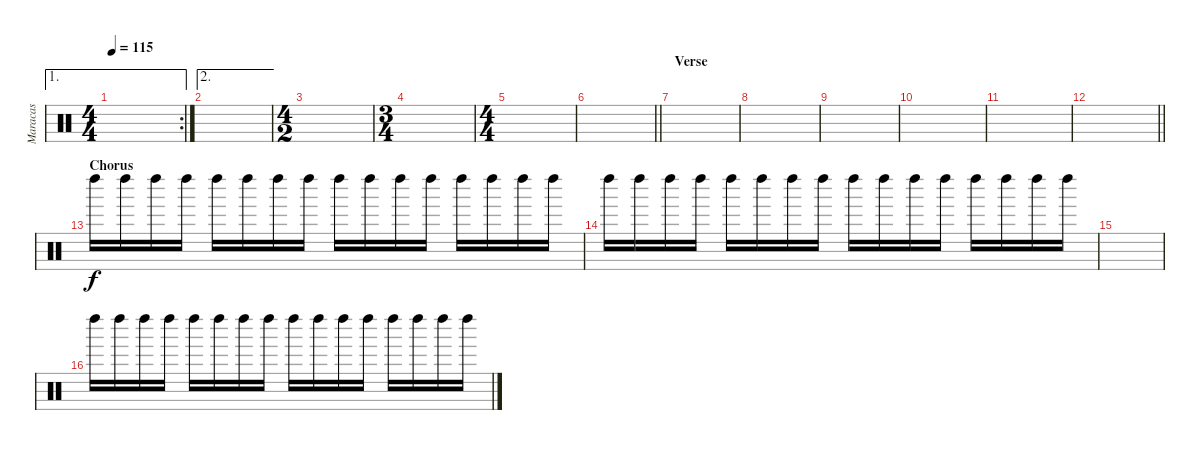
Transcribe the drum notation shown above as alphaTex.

\track ("Maracas" "Maracas") {instrument percussion}
\staff {score}
\articulation defaults
\ae 1
\rc 2
\ts (4 4)
\tempo 115
\clef neutral
\ks c
|
\ae 2
|
\ts (4 2)
|
\ts (3 4)
|
\ts (4 4)
|
\barLineRight lightlight
|
\section ("" "Verse")
|
|
|
|
|
\barLineRight lightlight
|
\section ("" "Chorus")
"Left Maraca (hit)".16 "Left Maraca (hit)".16 "Left Maraca (hit)".16 "Left Maraca (hit)".16 "Left Maraca (hit)".16 "Left Maraca (hit)".16 "Left Maraca (hit)".16 "Left Maraca (hit)".16 "Left Maraca (hit)".16 "Left Maraca (hit)".16 "Left Maraca (hit)".16 "Left Maraca (hit)".16 "Left Maraca (hit)".16 "Left Maraca (hit)".16 "Left Maraca (hit)".16 "Left Maraca (hit)".16 |
"Left Maraca (hit)".16 "Left Maraca (hit)".16 "Left Maraca (hit)".16 "Left Maraca (hit)".16 "Left Maraca (hit)".16 "Left Maraca (hit)".16 "Left Maraca (hit)".16 "Left Maraca (hit)".16 "Left Maraca (hit)".16 "Left Maraca (hit)".16 "Left Maraca (hit)".16 "Left Maraca (hit)".16 "Left Maraca (hit)".16 "Left Maraca (hit)".16 "Left Maraca (hit)".16 "Left Maraca (hit)".16 |
|
"Left Maraca (hit)".16 "Left Maraca (hit)".16 "Left Maraca (hit)".16 "Left Maraca (hit)".16 "Left Maraca (hit)".16 "Left Maraca (hit)".16 "Left Maraca (hit)".16 "Left Maraca (hit)".16 "Left Maraca (hit)".16 "Left Maraca (hit)".16 "Left Maraca (hit)".16 "Left Maraca (hit)".16 "Left Maraca (hit)".16 "Left Maraca (hit)".16 "Left Maraca (hit)".16 "Left Maraca (hit)".16
